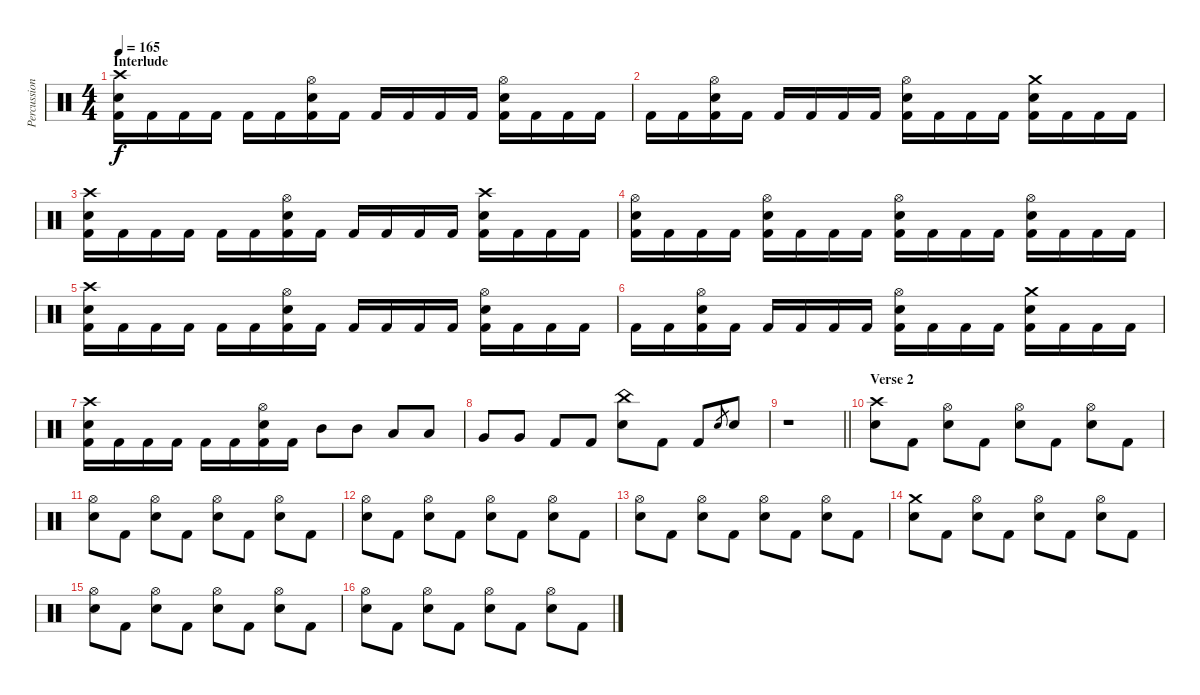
\track ("Percussions" "Percussion") {instrument percussion}
\staff {score}
\articulation defaults
\ts (4 4)
\section ("" "Interlude")
\tempo 165
\clef neutral
\ks c
("Crash high (hit)" "Electric Snare (hit)" "Kick (hit) 2").16{dy f} "Kick (hit) 2".16 "Kick (hit) 2".16 "Kick (hit) 2".16 "Kick (hit) 2".16 "Kick (hit) 2".16 ("Hi-Hat (open)" "Electric Snare (hit)" "Kick (hit) 2").16 "Kick (hit) 2".16 "Kick (hit) 2".16 "Kick (hit) 2".16 "Kick (hit) 2".16 "Kick (hit) 2".16 ("Hi-Hat (open)" "Electric Snare (hit)" "Kick (hit) 2").16 "Kick (hit) 2".16 "Kick (hit) 2".16 "Kick (hit) 2".16 |
"Kick (hit) 2".16 "Kick (hit) 2".16 ("Hi-Hat (open)" "Electric Snare (hit)" "Kick (hit) 2").16 "Kick (hit) 2".16 "Kick (hit) 2".16 "Kick (hit) 2".16 "Kick (hit) 2".16 "Kick (hit) 2".16 ("Hi-Hat (open)" "Electric Snare (hit)" "Kick (hit) 2").16 "Kick (hit) 2".16 "Kick (hit) 2".16 "Kick (hit) 2".16 ("Crash medium (hit)" "Electric Snare (hit)" "Kick (hit) 2").16 "Kick (hit) 2".16 "Kick (hit) 2".16 "Kick (hit) 2".16 |
("Crash high (hit)" "Electric Snare (hit)" "Kick (hit) 2").16 "Kick (hit) 2".16 "Kick (hit) 2".16 "Kick (hit) 2".16 "Kick (hit) 2".16 "Kick (hit) 2".16 ("Hi-Hat (open)" "Electric Snare (hit)" "Kick (hit) 2").16 "Kick (hit) 2".16 "Kick (hit) 2".16 "Kick (hit) 2".16 "Kick (hit) 2".16 "Kick (hit) 2".16 ("Crash high (hit)" "Electric Snare (hit)" "Kick (hit) 2").16 "Kick (hit) 2".16 "Kick (hit) 2".16 "Kick (hit) 2".16 |
("Hi-Hat (open)" "Electric Snare (hit)" "Kick (hit) 2").16 "Kick (hit) 2".16 "Kick (hit) 2".16 "Kick (hit) 2".16 ("Hi-Hat (open)" "Electric Snare (hit)" "Kick (hit) 2").16 "Kick (hit) 2".16 "Kick (hit) 2".16 "Kick (hit) 2".16 ("Hi-Hat (open)" "Electric Snare (hit)" "Kick (hit) 2").16 "Kick (hit) 2".16 "Kick (hit) 2".16 "Kick (hit) 2".16 ("Hi-Hat (open)" "Electric Snare (hit)" "Kick (hit) 2").16 "Kick (hit) 2".16 "Kick (hit) 2".16 "Kick (hit) 2".16 |
("Crash high (hit)" "Electric Snare (hit)" "Kick (hit) 2").16 "Kick (hit) 2".16 "Kick (hit) 2".16 "Kick (hit) 2".16 "Kick (hit) 2".16 "Kick (hit) 2".16 ("Hi-Hat (open)" "Electric Snare (hit)" "Kick (hit) 2").16 "Kick (hit) 2".16 "Kick (hit) 2".16 "Kick (hit) 2".16 "Kick (hit) 2".16 "Kick (hit) 2".16 ("Hi-Hat (open)" "Electric Snare (hit)" "Kick (hit) 2").16 "Kick (hit) 2".16 "Kick (hit) 2".16 "Kick (hit) 2".16 |
"Kick (hit) 2".16 "Kick (hit) 2".16 ("Hi-Hat (open)" "Electric Snare (hit)" "Kick (hit) 2").16 "Kick (hit) 2".16 "Kick (hit) 2".16 "Kick (hit) 2".16 "Kick (hit) 2".16 "Kick (hit) 2".16 ("Hi-Hat (open)" "Electric Snare (hit)" "Kick (hit) 2").16 "Kick (hit) 2".16 "Kick (hit) 2".16 "Kick (hit) 2".16 ("Crash medium (hit)" "Electric Snare (hit)" "Kick (hit) 2").16 "Kick (hit) 2".16 "Kick (hit) 2".16 "Kick (hit) 2".16 |
("Crash high (hit)" "Electric Snare (hit)" "Kick (hit) 2").16 "Kick (hit) 2".16 "Kick (hit) 2".16 "Kick (hit) 2".16 "Kick (hit) 2".16 "Kick (hit) 2".16 ("Hi-Hat (open)" "Electric Snare (hit)" "Kick (hit) 2").16 "Kick (hit) 2".16 "Mid Tom (hit)".8 "Mid Tom (hit)".8 "Low Tom (hit)".8 "Low Tom (hit)".8 |
"Very Low Tom (hit)".8 "Very Low Tom (hit)".8 "Kick (hit) 2".8 "Kick (hit) 2".8 ("China (hit)" "Electric Snare (hit)").8 "Kick (hit) 2".8 "Kick (hit) 2".8 "Electric Snare (hit)".8{gr} "Electric Snare (hit)".8 |
\barLineRight lightlight
r.1 |
\section ("" "Verse 2")
("Crash high (hit)" "Electric Snare (hit)").8 "Kick (hit) 2".8 ("Hi-Hat (open)" "Electric Snare (hit)").8 "Kick (hit) 2".8 ("Hi-Hat (open)" "Electric Snare (hit)").8 "Kick (hit) 2".8 ("Hi-Hat (open)" "Electric Snare (hit)").8 "Kick (hit) 2".8 |
("Hi-Hat (open)" "Electric Snare (hit)").8 "Kick (hit) 2".8 ("Hi-Hat (open)" "Electric Snare (hit)").8 "Kick (hit) 2".8 ("Hi-Hat (open)" "Electric Snare (hit)").8 "Kick (hit) 2".8 ("Hi-Hat (open)" "Electric Snare (hit)").8 "Kick (hit) 2".8 |
("Hi-Hat (open)" "Electric Snare (hit)").8 "Kick (hit) 2".8 ("Hi-Hat (open)" "Electric Snare (hit)").8 "Kick (hit) 2".8 ("Hi-Hat (open)" "Electric Snare (hit)").8 "Kick (hit) 2".8 ("Hi-Hat (open)" "Electric Snare (hit)").8 "Kick (hit) 2".8 |
("Hi-Hat (open)" "Electric Snare (hit)").8 "Kick (hit) 2".8 ("Hi-Hat (open)" "Electric Snare (hit)").8 "Kick (hit) 2".8 ("Hi-Hat (open)" "Electric Snare (hit)").8 "Kick (hit) 2".8 ("Hi-Hat (open)" "Electric Snare (hit)").8 "Kick (hit) 2".8 |
("Crash medium (hit)" "Electric Snare (hit)").8 "Kick (hit) 2".8 ("Hi-Hat (open)" "Electric Snare (hit)").8 "Kick (hit) 2".8 ("Hi-Hat (open)" "Electric Snare (hit)").8 "Kick (hit) 2".8 ("Hi-Hat (open)" "Electric Snare (hit)").8 "Kick (hit) 2".8 |
("Hi-Hat (open)" "Electric Snare (hit)").8 "Kick (hit) 2".8 ("Hi-Hat (open)" "Electric Snare (hit)").8 "Kick (hit) 2".8 ("Hi-Hat (open)" "Electric Snare (hit)").8 "Kick (hit) 2".8 ("Hi-Hat (open)" "Electric Snare (hit)").8 "Kick (hit) 2".8 |
("Hi-Hat (open)" "Electric Snare (hit)").8 "Kick (hit) 2".8 ("Hi-Hat (open)" "Electric Snare (hit)").8 "Kick (hit) 2".8 ("Hi-Hat (open)" "Electric Snare (hit)").8 "Kick (hit) 2".8 ("Hi-Hat (open)" "Electric Snare (hit)").8 "Kick (hit) 2".8
